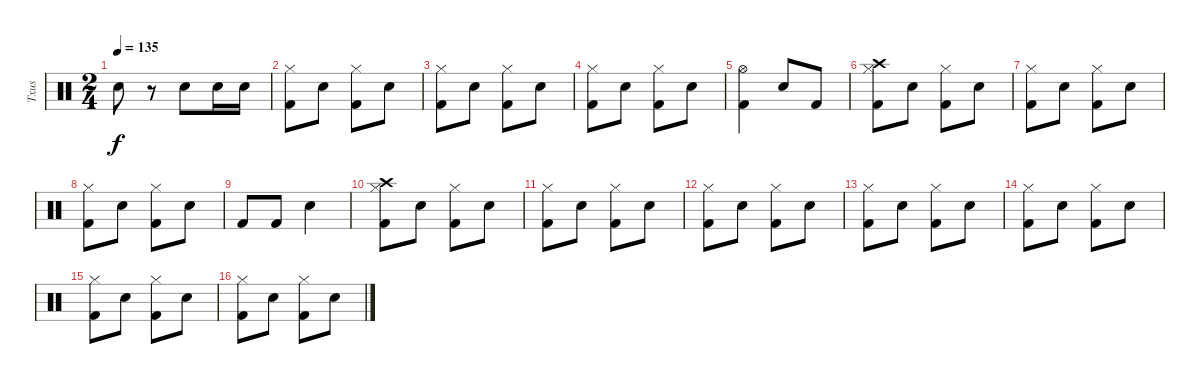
\track ("Txus" "Txus") {instrument percussion}
\staff {score}
\articulation defaults
\ts (2 4)
\tempo 135
\clef neutral
\ks c "Electric Snare (hit)".8{dy f}
r.8 "Electric Snare (hit)".8 "Electric Snare (hit)".16 "Electric Snare (hit)".16 |
("Hi-Hat (closed)" "Kick (hit) 2").8 "Snare (hit) 2".8 ("Hi-Hat (closed)" "Kick (hit) 2").8 "Snare (hit) 2".8 |
("Hi-Hat (closed)" "Kick (hit) 2").8 "Snare (hit) 2".8 ("Hi-Hat (closed)" "Kick (hit) 2").8 "Snare (hit) 2".8 |
("Hi-Hat (closed)" "Kick (hit) 2").8 "Snare (hit) 2".8 ("Hi-Hat (closed)" "Kick (hit) 2").8 "Snare (hit) 2".8 |
("Hi-Hat (open)" "Kick (hit) 2").4 "Snare (hit) 2".8 "Kick (hit) 2".8 |
("Crash high (hit)" "Hi-Hat (closed)" "Kick (hit) 2").8 "Snare (hit) 2".8 ("Hi-Hat (closed)" "Kick (hit) 2").8 "Snare (hit) 2".8 |
("Hi-Hat (closed)" "Kick (hit) 2").8 "Snare (hit) 2".8 ("Hi-Hat (closed)" "Kick (hit) 2").8 "Snare (hit) 2".8 |
("Hi-Hat (closed)" "Kick (hit) 2").8 "Snare (hit) 2".8 ("Hi-Hat (closed)" "Kick (hit) 2").8 "Snare (hit) 2".8 |
"Kick (hit) 2".8 "Kick (hit) 2".8 "Snare (hit) 2".4 |
("Crash high (hit)" "Hi-Hat (closed)" "Kick (hit) 2").8 "Snare (hit) 2".8 ("Hi-Hat (closed)" "Kick (hit) 2").8 "Snare (hit) 2".8 |
("Hi-Hat (closed)" "Kick (hit) 2").8 "Snare (hit) 2".8 ("Hi-Hat (closed)" "Kick (hit) 2").8 "Snare (hit) 2".8 |
("Hi-Hat (closed)" "Kick (hit) 2").8 "Snare (hit) 2".8 ("Hi-Hat (closed)" "Kick (hit) 2").8 "Snare (hit) 2".8 |
("Hi-Hat (closed)" "Kick (hit) 2").8 "Snare (hit) 2".8 ("Hi-Hat (closed)" "Kick (hit) 2").8 "Snare (hit) 2".8 |
("Hi-Hat (closed)" "Kick (hit) 2").8 "Snare (hit) 2".8 ("Hi-Hat (closed)" "Kick (hit) 2").8 "Snare (hit) 2".8 |
("Hi-Hat (closed)" "Kick (hit) 2").8 "Snare (hit) 2".8 ("Hi-Hat (closed)" "Kick (hit) 2").8 "Snare (hit) 2".8 |
("Hi-Hat (closed)" "Kick (hit) 2").8 "Snare (hit) 2".8 ("Hi-Hat (closed)" "Kick (hit) 2").8 "Snare (hit) 2".8
